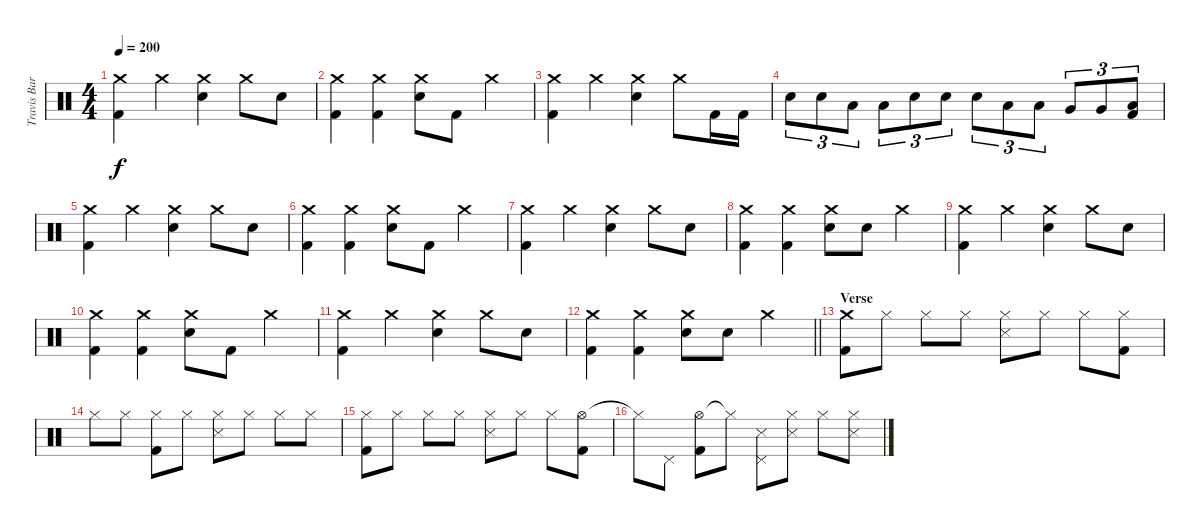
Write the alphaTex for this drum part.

\track ("Travis Barker - Drums" "Travis Bar") {instrument percussion}
\staff {score}
\articulation defaults
\ts (4 4)
\tempo 200
\clef neutral
\ks c
("Crash medium (hit)" "Kick (hit) 2").4{dy f} "Crash medium (hit)".4 ("Crash medium (hit)" "Electric Snare (hit)").4 "Crash medium (hit)".8 "Electric Snare (hit)".8 |
("Crash medium (hit)" "Kick (hit) 2").4 ("Crash medium (hit)" "Kick (hit) 2").4 ("Crash medium (hit)" "Electric Snare (hit)").8 "Kick (hit) 2".8 "Crash medium (hit)".4 |
("Crash medium (hit)" "Kick (hit) 2").4 "Crash medium (hit)".4 ("Crash medium (hit)" "Electric Snare (hit)").4 "Crash medium (hit)".8 "Kick (hit) 2".16 "Kick (hit) 2".16 |
"Electric Snare (hit)".8{tu (3 2)} "Electric Snare (hit)".8{tu (3 2)} "Low Tom (hit)".8{tu (3 2)} "Low Tom (hit)".8{tu (3 2)} "Electric Snare (hit)".8{tu (3 2)} "Electric Snare (hit)".8{tu (3 2)} "Electric Snare (hit)".8{tu (3 2)} "Low Tom (hit)".8{tu (3 2)} "Low Tom (hit)".8{tu (3 2)} "Very Low Tom (hit)".8{tu (3 2)} "Very Low Tom (hit)".8{tu (3 2)} ("Low Floor Tom (hit)" "Kick (hit) 2").8{tu (3 2)} |
("Crash medium (hit)" "Kick (hit) 2").4 "Crash medium (hit)".4 ("Crash medium (hit)" "Electric Snare (hit)").4 "Crash medium (hit)".8 "Electric Snare (hit)".8 |
("Crash medium (hit)" "Kick (hit) 2").4 ("Crash medium (hit)" "Kick (hit) 2").4 ("Crash medium (hit)" "Electric Snare (hit)").8 "Kick (hit) 2".8 "Crash medium (hit)".4 |
("Crash medium (hit)" "Kick (hit) 2").4 "Crash medium (hit)".4 ("Crash medium (hit)" "Electric Snare (hit)").4 "Crash medium (hit)".8 "Electric Snare (hit)".8 |
("Crash medium (hit)" "Kick (hit) 2").4 ("Crash medium (hit)" "Kick (hit) 2").4 ("Crash medium (hit)" "Electric Snare (hit)").8 "Electric Snare (hit)".8 "Crash medium (hit)".4 |
("Crash medium (hit)" "Kick (hit) 2").4 "Crash medium (hit)".4 ("Crash medium (hit)" "Electric Snare (hit)").4 "Crash medium (hit)".8 "Electric Snare (hit)".8 |
("Crash medium (hit)" "Kick (hit) 2").4 ("Crash medium (hit)" "Kick (hit) 2").4 ("Crash medium (hit)" "Electric Snare (hit)").8 "Kick (hit) 2".8 "Crash medium (hit)".4 |
("Crash medium (hit)" "Kick (hit) 2").4 "Crash medium (hit)".4 ("Crash medium (hit)" "Electric Snare (hit)").4 "Crash medium (hit)".8 "Electric Snare (hit)".8 |
\barLineRight lightlight
("Crash medium (hit)" "Kick (hit) 2").4 ("Crash medium (hit)" "Kick (hit) 2").4 ("Crash medium (hit)" "Electric Snare (hit)").8 "Electric Snare (hit)".8 "Crash medium (hit)".4 |
\section ("" "Verse")
("Crash medium (hit)" "Kick (hit) 2").8 "Hi-Hat (closed)".8 "Hi-Hat (closed)".8 "Hi-Hat (closed)".8 ("Hi-Hat (closed)" "Snare (side stick) 3").8 "Hi-Hat (closed)".8 "Hi-Hat (closed)".8 ("Hi-Hat (closed)" "Kick (hit) 2").8 |
"Hi-Hat (closed)".8 "Hi-Hat (closed)".8 ("Hi-Hat (closed)" "Kick (hit) 2").8 "Hi-Hat (closed)".8 ("Hi-Hat (closed)" "Snare (side stick) 3").8 "Hi-Hat (closed)".8 "Hi-Hat (closed)".8 "Hi-Hat (closed)".8 |
("Hi-Hat (closed)" "Kick (hit) 2").8 "Hi-Hat (closed)".8 "Hi-Hat (closed)".8 "Hi-Hat (closed)".8 ("Hi-Hat (closed)" "Snare (side stick) 3").8 "Hi-Hat (closed)".8 "Hi-Hat (closed)".8 ("Hi-Hat (open)" "Kick (hit) 2").8 |
"Hi-Hat (closed)"{t}.8 "Pedal Hi-Hat (hit)".8 ("Hi-Hat (open)" "Kick (hit) 2").8 "Hi-Hat (closed)"{t}.8 ("Pedal Hi-Hat (hit)" "Snare (side stick) 3").8 ("Hi-Hat (closed)" "Snare (side stick) 3").8 "Hi-Hat (closed)".8 ("Hi-Hat (closed)" "Snare (side stick) 3").8
